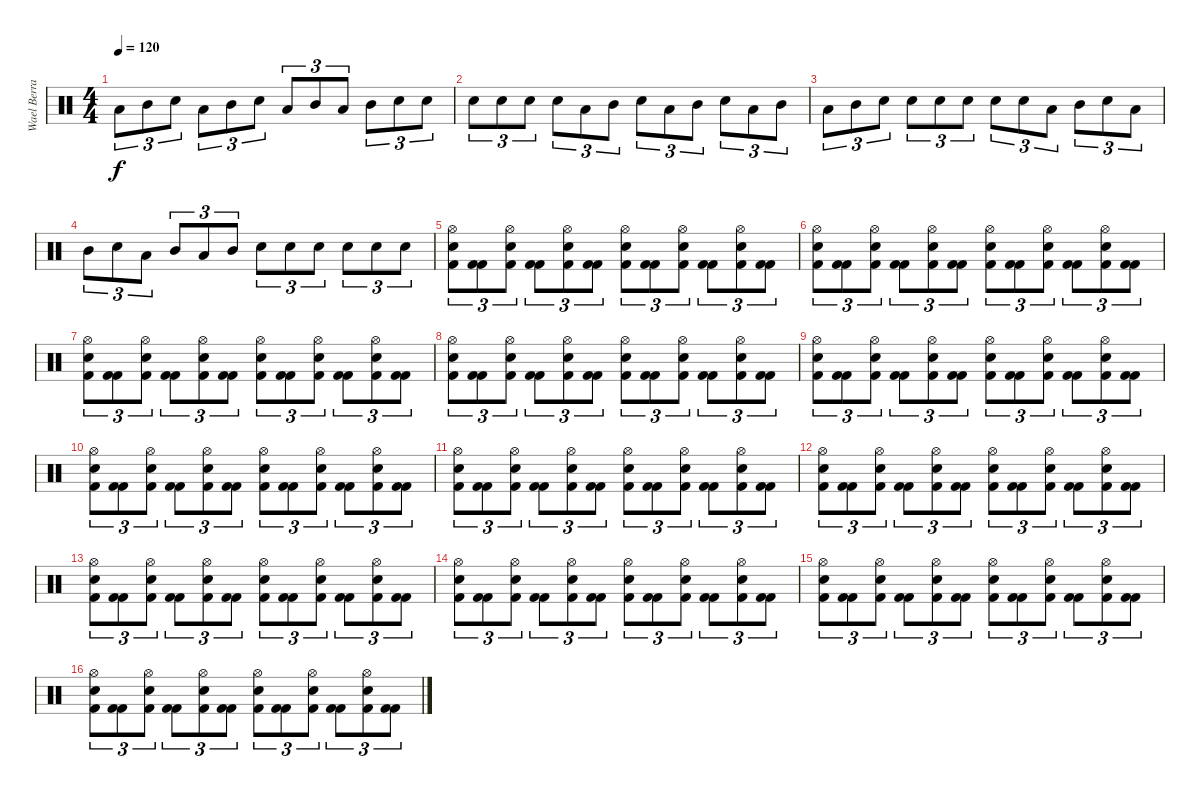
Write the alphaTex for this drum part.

\track ("Wael Berrais" "Wael Berra") {instrument percussion}
\staff {score}
\articulation defaults
\ts (4 4)
\tempo 120
\clef neutral
\ks c "Low Tom (hit)".8{tu (3 2) dy f} "Mid Tom (hit)".8{tu (3 2)} "Electric Snare (hit)".8{tu (3 2)} "Low Tom (hit)".8{tu (3 2)} "Mid Tom (hit)".8{tu (3 2)} "Electric Snare (hit)".8{tu (3 2)} "Low Tom (hit)".8{tu (3 2)} "Mid Tom (hit)".8{tu (3 2)} "Low Tom (hit)".8{tu (3 2)} "Mid Tom (hit)".8{tu (3 2)} "Electric Snare (hit)".8{tu (3 2)} "Electric Snare (hit)".8{tu (3 2)}
|
"Electric Snare (hit)".8{tu (3 2)} "Electric Snare (hit)".8{tu (3 2)} "Electric Snare (hit)".8{tu (3 2)} "Electric Snare (hit)".8{tu (3 2)} "Low Tom (hit)".8{tu (3 2)} "Mid Tom (hit)".8{tu (3 2)} "Electric Snare (hit)".8{tu (3 2)} "Low Tom (hit)".8{tu (3 2)} "Mid Tom (hit)".8{tu (3 2)} "Electric Snare (hit)".8{tu (3 2)} "Low Tom (hit)".8{tu (3 2)} "Mid Tom (hit)".8{tu (3 2)} |
"Low Tom (hit)".8{tu (3 2)} "Mid Tom (hit)".8{tu (3 2)} "Electric Snare (hit)".8{tu (3 2)} "Electric Snare (hit)".8{tu (3 2)} "Electric Snare (hit)".8{tu (3 2)} "Electric Snare (hit)".8{tu (3 2)} "Electric Snare (hit)".8{tu (3 2)} "Electric Snare (hit)".8{tu (3 2)} "Low Tom (hit)".8{tu (3 2)} "Mid Tom (hit)".8{tu (3 2)} "Electric Snare (hit)".8{tu (3 2)} "Low Tom (hit)".8{tu (3 2)} |
"Mid Tom (hit)".8{tu (3 2)} "Electric Snare (hit)".8{tu (3 2)} "Low Tom (hit)".8{tu (3 2)} "Mid Tom (hit)".8{tu (3 2)} "Low Tom (hit)".8{tu (3 2)} "Mid Tom (hit)".8{tu (3 2)} "Electric Snare (hit)".8{tu (3 2)} "Electric Snare (hit)".8{tu (3 2)} "Electric Snare (hit)".8{tu (3 2)} "Electric Snare (hit)".8{tu (3 2)} "Electric Snare (hit)".8{tu (3 2)} "Electric Snare (hit)".8{tu (3 2)} |
("Electric Snare (hit)" "Kick (hit) 2" "Hi-Hat (open)").8{tu (3 2)} ("Kick (hit) 2" "Kick (hit) 2").8{tu (3 2)} ("Electric Snare (hit)" "Kick (hit) 2" "Hi-Hat (open)").8{tu (3 2)} ("Kick (hit) 2" "Kick (hit) 2").8{tu (3 2)} ("Electric Snare (hit)" "Kick (hit) 2" "Hi-Hat (open)").8{tu (3 2)} ("Kick (hit) 2" "Kick (hit) 2").8{tu (3 2)} ("Electric Snare (hit)" "Kick (hit) 2" "Hi-Hat (open)").8{tu (3 2)} ("Kick (hit) 2" "Kick (hit) 2").8{tu (3 2)} ("Electric Snare (hit)" "Kick (hit) 2" "Hi-Hat (open)").8{tu (3 2)} ("Kick (hit) 2" "Kick (hit) 2").8{tu (3 2)} ("Electric Snare (hit)" "Kick (hit) 2" "Hi-Hat (open)").8{tu (3 2)} ("Kick (hit) 2" "Kick (hit) 2").8{tu (3 2)} |
("Electric Snare (hit)" "Kick (hit) 2" "Hi-Hat (open)").8{tu (3 2)} ("Kick (hit) 2" "Kick (hit) 2").8{tu (3 2)} ("Electric Snare (hit)" "Kick (hit) 2" "Hi-Hat (open)").8{tu (3 2)} ("Kick (hit) 2" "Kick (hit) 2").8{tu (3 2)} ("Electric Snare (hit)" "Kick (hit) 2" "Hi-Hat (open)").8{tu (3 2)} ("Kick (hit) 2" "Kick (hit) 2").8{tu (3 2)} ("Electric Snare (hit)" "Kick (hit) 2" "Hi-Hat (open)").8{tu (3 2)} ("Kick (hit) 2" "Kick (hit) 2").8{tu (3 2)} ("Electric Snare (hit)" "Kick (hit) 2" "Hi-Hat (open)").8{tu (3 2)} ("Kick (hit) 2" "Kick (hit) 2").8{tu (3 2)} ("Electric Snare (hit)" "Kick (hit) 2" "Hi-Hat (open)").8{tu (3 2)} ("Kick (hit) 2" "Kick (hit) 2").8{tu (3 2)} |
("Electric Snare (hit)" "Kick (hit) 2" "Hi-Hat (open)").8{tu (3 2)} ("Kick (hit) 2" "Kick (hit) 2").8{tu (3 2)} ("Electric Snare (hit)" "Kick (hit) 2" "Hi-Hat (open)").8{tu (3 2)} ("Kick (hit) 2" "Kick (hit) 2").8{tu (3 2)} ("Electric Snare (hit)" "Kick (hit) 2" "Hi-Hat (open)").8{tu (3 2)} ("Kick (hit) 2" "Kick (hit) 2").8{tu (3 2)} ("Electric Snare (hit)" "Kick (hit) 2" "Hi-Hat (open)").8{tu (3 2)} ("Kick (hit) 2" "Kick (hit) 2").8{tu (3 2)} ("Electric Snare (hit)" "Kick (hit) 2" "Hi-Hat (open)").8{tu (3 2)} ("Kick (hit) 2" "Kick (hit) 2").8{tu (3 2)} ("Electric Snare (hit)" "Kick (hit) 2" "Hi-Hat (open)").8{tu (3 2)} ("Kick (hit) 2" "Kick (hit) 2").8{tu (3 2)} |
("Electric Snare (hit)" "Kick (hit) 2" "Hi-Hat (open)").8{tu (3 2)} ("Kick (hit) 2" "Kick (hit) 2").8{tu (3 2)} ("Electric Snare (hit)" "Kick (hit) 2" "Hi-Hat (open)").8{tu (3 2)} ("Kick (hit) 2" "Kick (hit) 2").8{tu (3 2)} ("Electric Snare (hit)" "Kick (hit) 2" "Hi-Hat (open)").8{tu (3 2)} ("Kick (hit) 2" "Kick (hit) 2").8{tu (3 2)} ("Electric Snare (hit)" "Kick (hit) 2" "Hi-Hat (open)").8{tu (3 2)} ("Kick (hit) 2" "Kick (hit) 2").8{tu (3 2)} ("Electric Snare (hit)" "Kick (hit) 2" "Hi-Hat (open)").8{tu (3 2)} ("Kick (hit) 2" "Kick (hit) 2").8{tu (3 2)} ("Electric Snare (hit)" "Kick (hit) 2" "Hi-Hat (open)").8{tu (3 2)} ("Kick (hit) 2" "Kick (hit) 2").8{tu (3 2)} |
("Electric Snare (hit)" "Kick (hit) 2" "Hi-Hat (open)").8{tu (3 2)} ("Kick (hit) 2" "Kick (hit) 2").8{tu (3 2)} ("Electric Snare (hit)" "Kick (hit) 2" "Hi-Hat (open)").8{tu (3 2)} ("Kick (hit) 2" "Kick (hit) 2").8{tu (3 2)} ("Electric Snare (hit)" "Kick (hit) 2" "Hi-Hat (open)").8{tu (3 2)} ("Kick (hit) 2" "Kick (hit) 2").8{tu (3 2)} ("Electric Snare (hit)" "Kick (hit) 2" "Hi-Hat (open)").8{tu (3 2)} ("Kick (hit) 2" "Kick (hit) 2").8{tu (3 2)} ("Electric Snare (hit)" "Kick (hit) 2" "Hi-Hat (open)").8{tu (3 2)} ("Kick (hit) 2" "Kick (hit) 2").8{tu (3 2)} ("Electric Snare (hit)" "Kick (hit) 2" "Hi-Hat (open)").8{tu (3 2)} ("Kick (hit) 2" "Kick (hit) 2").8{tu (3 2)} |
("Electric Snare (hit)" "Kick (hit) 2" "Hi-Hat (open)").8{tu (3 2)} ("Kick (hit) 2" "Kick (hit) 2").8{tu (3 2)} ("Electric Snare (hit)" "Kick (hit) 2" "Hi-Hat (open)").8{tu (3 2)} ("Kick (hit) 2" "Kick (hit) 2").8{tu (3 2)} ("Electric Snare (hit)" "Kick (hit) 2" "Hi-Hat (open)").8{tu (3 2)} ("Kick (hit) 2" "Kick (hit) 2").8{tu (3 2)} ("Electric Snare (hit)" "Kick (hit) 2" "Hi-Hat (open)").8{tu (3 2)} ("Kick (hit) 2" "Kick (hit) 2").8{tu (3 2)} ("Electric Snare (hit)" "Kick (hit) 2" "Hi-Hat (open)").8{tu (3 2)} ("Kick (hit) 2" "Kick (hit) 2").8{tu (3 2)} ("Electric Snare (hit)" "Kick (hit) 2" "Hi-Hat (open)").8{tu (3 2)} ("Kick (hit) 2" "Kick (hit) 2").8{tu (3 2)} |
("Electric Snare (hit)" "Kick (hit) 2" "Hi-Hat (open)").8{tu (3 2)} ("Kick (hit) 2" "Kick (hit) 2").8{tu (3 2)} ("Electric Snare (hit)" "Kick (hit) 2" "Hi-Hat (open)").8{tu (3 2)} ("Kick (hit) 2" "Kick (hit) 2").8{tu (3 2)} ("Electric Snare (hit)" "Kick (hit) 2" "Hi-Hat (open)").8{tu (3 2)} ("Kick (hit) 2" "Kick (hit) 2").8{tu (3 2)} ("Electric Snare (hit)" "Kick (hit) 2" "Hi-Hat (open)").8{tu (3 2)} ("Kick (hit) 2" "Kick (hit) 2").8{tu (3 2)} ("Electric Snare (hit)" "Kick (hit) 2" "Hi-Hat (open)").8{tu (3 2)} ("Kick (hit) 2" "Kick (hit) 2").8{tu (3 2)} ("Electric Snare (hit)" "Kick (hit) 2" "Hi-Hat (open)").8{tu (3 2)} ("Kick (hit) 2" "Kick (hit) 2").8{tu (3 2)} |
("Electric Snare (hit)" "Kick (hit) 2" "Hi-Hat (open)").8{tu (3 2)} ("Kick (hit) 2" "Kick (hit) 2").8{tu (3 2)} ("Electric Snare (hit)" "Kick (hit) 2" "Hi-Hat (open)").8{tu (3 2)} ("Kick (hit) 2" "Kick (hit) 2").8{tu (3 2)} ("Electric Snare (hit)" "Kick (hit) 2" "Hi-Hat (open)").8{tu (3 2)} ("Kick (hit) 2" "Kick (hit) 2").8{tu (3 2)} ("Electric Snare (hit)" "Kick (hit) 2" "Hi-Hat (open)").8{tu (3 2)} ("Kick (hit) 2" "Kick (hit) 2").8{tu (3 2)} ("Electric Snare (hit)" "Kick (hit) 2" "Hi-Hat (open)").8{tu (3 2)} ("Kick (hit) 2" "Kick (hit) 2").8{tu (3 2)} ("Electric Snare (hit)" "Kick (hit) 2" "Hi-Hat (open)").8{tu (3 2)} ("Kick (hit) 2" "Kick (hit) 2").8{tu (3 2)} |
("Electric Snare (hit)" "Kick (hit) 2" "Hi-Hat (open)").8{tu (3 2)} ("Kick (hit) 2" "Kick (hit) 2").8{tu (3 2)} ("Electric Snare (hit)" "Kick (hit) 2" "Hi-Hat (open)").8{tu (3 2)} ("Kick (hit) 2" "Kick (hit) 2").8{tu (3 2)} ("Electric Snare (hit)" "Kick (hit) 2" "Hi-Hat (open)").8{tu (3 2)} ("Kick (hit) 2" "Kick (hit) 2").8{tu (3 2)} ("Electric Snare (hit)" "Kick (hit) 2" "Hi-Hat (open)").8{tu (3 2)} ("Kick (hit) 2" "Kick (hit) 2").8{tu (3 2)} ("Electric Snare (hit)" "Kick (hit) 2" "Hi-Hat (open)").8{tu (3 2)} ("Kick (hit) 2" "Kick (hit) 2").8{tu (3 2)} ("Electric Snare (hit)" "Kick (hit) 2" "Hi-Hat (open)").8{tu (3 2)} ("Kick (hit) 2" "Kick (hit) 2").8{tu (3 2)} |
("Electric Snare (hit)" "Kick (hit) 2" "Hi-Hat (open)").8{tu (3 2)} ("Kick (hit) 2" "Kick (hit) 2").8{tu (3 2)} ("Electric Snare (hit)" "Kick (hit) 2" "Hi-Hat (open)").8{tu (3 2)} ("Kick (hit) 2" "Kick (hit) 2").8{tu (3 2)} ("Electric Snare (hit)" "Kick (hit) 2" "Hi-Hat (open)").8{tu (3 2)} ("Kick (hit) 2" "Kick (hit) 2").8{tu (3 2)} ("Electric Snare (hit)" "Kick (hit) 2" "Hi-Hat (open)").8{tu (3 2)} ("Kick (hit) 2" "Kick (hit) 2").8{tu (3 2)} ("Electric Snare (hit)" "Kick (hit) 2" "Hi-Hat (open)").8{tu (3 2)} ("Kick (hit) 2" "Kick (hit) 2").8{tu (3 2)} ("Electric Snare (hit)" "Kick (hit) 2" "Hi-Hat (open)").8{tu (3 2)} ("Kick (hit) 2" "Kick (hit) 2").8{tu (3 2)} |
("Electric Snare (hit)" "Kick (hit) 2" "Hi-Hat (open)").8{tu (3 2)} ("Kick (hit) 2" "Kick (hit) 2").8{tu (3 2)} ("Electric Snare (hit)" "Kick (hit) 2" "Hi-Hat (open)").8{tu (3 2)} ("Kick (hit) 2" "Kick (hit) 2").8{tu (3 2)} ("Electric Snare (hit)" "Kick (hit) 2" "Hi-Hat (open)").8{tu (3 2)} ("Kick (hit) 2" "Kick (hit) 2").8{tu (3 2)} ("Electric Snare (hit)" "Kick (hit) 2" "Hi-Hat (open)").8{tu (3 2)} ("Kick (hit) 2" "Kick (hit) 2").8{tu (3 2)} ("Electric Snare (hit)" "Kick (hit) 2" "Hi-Hat (open)").8{tu (3 2)} ("Kick (hit) 2" "Kick (hit) 2").8{tu (3 2)} ("Electric Snare (hit)" "Kick (hit) 2" "Hi-Hat (open)").8{tu (3 2)} ("Kick (hit) 2" "Kick (hit) 2").8{tu (3 2)} |
("Electric Snare (hit)" "Kick (hit) 2" "Hi-Hat (open)").8{tu (3 2)} ("Kick (hit) 2" "Kick (hit) 2").8{tu (3 2)} ("Electric Snare (hit)" "Kick (hit) 2" "Hi-Hat (open)").8{tu (3 2)} ("Kick (hit) 2" "Kick (hit) 2").8{tu (3 2)} ("Electric Snare (hit)" "Kick (hit) 2" "Hi-Hat (open)").8{tu (3 2)} ("Kick (hit) 2" "Kick (hit) 2").8{tu (3 2)} ("Electric Snare (hit)" "Kick (hit) 2" "Hi-Hat (open)").8{tu (3 2)} ("Kick (hit) 2" "Kick (hit) 2").8{tu (3 2)} ("Electric Snare (hit)" "Kick (hit) 2" "Hi-Hat (open)").8{tu (3 2)} ("Kick (hit) 2" "Kick (hit) 2").8{tu (3 2)} ("Electric Snare (hit)" "Kick (hit) 2" "Hi-Hat (open)").8{tu (3 2)} ("Kick (hit) 2" "Kick (hit) 2").8{tu (3 2)}
